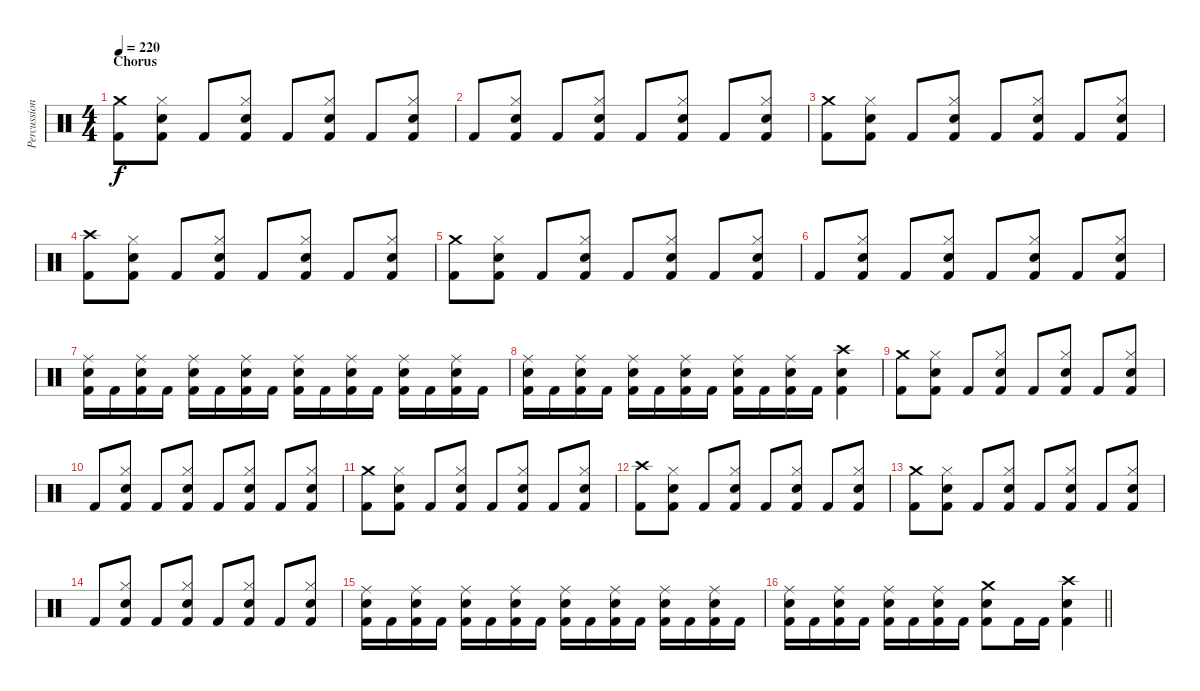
\track ("Percussion" "Percussion") {instrument percussion}
\staff {score}
\articulation defaults
\ts (4 4)
\section ("" "Chorus")
\tempo 220
\clef neutral
\ks c
("Crash medium (hit)" "Kick (hit) 2").8{dy f} ("Hi-Hat (closed)" "Electric Snare (hit)" "Kick (hit) 2").8 "Kick (hit) 2".8 ("Hi-Hat (closed)" "Electric Snare (hit)" "Kick (hit) 2").8 "Kick (hit) 2".8 ("Hi-Hat (closed)" "Electric Snare (hit)" "Kick (hit) 2").8 "Kick (hit) 2".8 ("Hi-Hat (closed)" "Electric Snare (hit)" "Kick (hit) 2").8 |
"Kick (hit) 2".8 ("Hi-Hat (closed)" "Electric Snare (hit)" "Kick (hit) 2").8 "Kick (hit) 2".8 ("Hi-Hat (closed)" "Electric Snare (hit)" "Kick (hit) 2").8 "Kick (hit) 2".8 ("Hi-Hat (closed)" "Electric Snare (hit)" "Kick (hit) 2").8 "Kick (hit) 2".8 ("Hi-Hat (closed)" "Electric Snare (hit)" "Kick (hit) 2").8 |
("Crash medium (hit)" "Kick (hit) 2").8 ("Hi-Hat (closed)" "Electric Snare (hit)" "Kick (hit) 2").8 "Kick (hit) 2".8 ("Hi-Hat (closed)" "Electric Snare (hit)" "Kick (hit) 2").8 "Kick (hit) 2".8 ("Hi-Hat (closed)" "Electric Snare (hit)" "Kick (hit) 2").8 "Kick (hit) 2".8 ("Hi-Hat (closed)" "Electric Snare (hit)" "Kick (hit) 2").8 |
("Crash high (hit)" "Kick (hit) 2").8 ("Hi-Hat (closed)" "Electric Snare (hit)" "Kick (hit) 2").8 "Kick (hit) 2".8 ("Hi-Hat (closed)" "Electric Snare (hit)" "Kick (hit) 2").8 "Kick (hit) 2".8 ("Hi-Hat (closed)" "Electric Snare (hit)" "Kick (hit) 2").8 "Kick (hit) 2".8 ("Hi-Hat (closed)" "Electric Snare (hit)" "Kick (hit) 2").8 |
("Crash medium (hit)" "Kick (hit) 2").8 ("Hi-Hat (closed)" "Electric Snare (hit)" "Kick (hit) 2").8 "Kick (hit) 2".8 ("Hi-Hat (closed)" "Electric Snare (hit)" "Kick (hit) 2").8 "Kick (hit) 2".8 ("Hi-Hat (closed)" "Electric Snare (hit)" "Kick (hit) 2").8 "Kick (hit) 2".8 ("Hi-Hat (closed)" "Electric Snare (hit)" "Kick (hit) 2").8 |
"Kick (hit) 2".8 ("Hi-Hat (closed)" "Electric Snare (hit)" "Kick (hit) 2").8 "Kick (hit) 2".8 ("Hi-Hat (closed)" "Electric Snare (hit)" "Kick (hit) 2").8 "Kick (hit) 2".8 ("Hi-Hat (closed)" "Electric Snare (hit)" "Kick (hit) 2").8 "Kick (hit) 2".8 ("Hi-Hat (closed)" "Electric Snare (hit)" "Kick (hit) 2").8 |
("Ride (middle)" "Electric Snare (hit)" "Kick (hit) 2").16 "Kick (hit) 2".16 ("Ride (middle)" "Electric Snare (hit)" "Kick (hit) 2").16 "Kick (hit) 2".16 ("Ride (middle)" "Electric Snare (hit)" "Kick (hit) 2").16 "Kick (hit) 2".16 ("Ride (middle)" "Electric Snare (hit)" "Kick (hit) 2").16 "Kick (hit) 2".16 ("Ride (middle)" "Electric Snare (hit)" "Kick (hit) 2").16 "Kick (hit) 2".16 ("Ride (middle)" "Electric Snare (hit)" "Kick (hit) 2").16 "Kick (hit) 2".16 ("Ride (middle)" "Electric Snare (hit)" "Kick (hit) 2").16 "Kick (hit) 2".16 ("Ride (middle)" "Electric Snare (hit)" "Kick (hit) 2").16 "Kick (hit) 2".16 |
("Ride (middle)" "Electric Snare (hit)" "Kick (hit) 2").16 "Kick (hit) 2".16 ("Ride (middle)" "Electric Snare (hit)" "Kick (hit) 2").16 "Kick (hit) 2".16 ("Ride (middle)" "Electric Snare (hit)" "Kick (hit) 2").16 "Kick (hit) 2".16 ("Ride (middle)" "Electric Snare (hit)" "Kick (hit) 2").16 "Kick (hit) 2".16 ("Ride (middle)" "Electric Snare (hit)" "Kick (hit) 2").16 "Kick (hit) 2".16 ("Ride (middle)" "Electric Snare (hit)" "Kick (hit) 2").16 "Kick (hit) 2".16 ("Crash high (hit)" "Electric Snare (hit)" "Kick (hit) 2").4 |
("Crash medium (hit)" "Kick (hit) 2").8 ("Hi-Hat (closed)" "Electric Snare (hit)" "Kick (hit) 2").8 "Kick (hit) 2".8 ("Hi-Hat (closed)" "Electric Snare (hit)" "Kick (hit) 2").8 "Kick (hit) 2".8 ("Hi-Hat (closed)" "Electric Snare (hit)" "Kick (hit) 2").8 "Kick (hit) 2".8 ("Hi-Hat (closed)" "Electric Snare (hit)" "Kick (hit) 2").8 |
"Kick (hit) 2".8 ("Hi-Hat (closed)" "Electric Snare (hit)" "Kick (hit) 2").8 "Kick (hit) 2".8 ("Hi-Hat (closed)" "Electric Snare (hit)" "Kick (hit) 2").8 "Kick (hit) 2".8 ("Hi-Hat (closed)" "Electric Snare (hit)" "Kick (hit) 2").8 "Kick (hit) 2".8 ("Hi-Hat (closed)" "Electric Snare (hit)" "Kick (hit) 2").8 |
("Crash medium (hit)" "Kick (hit) 2").8 ("Hi-Hat (closed)" "Electric Snare (hit)" "Kick (hit) 2").8 "Kick (hit) 2".8 ("Hi-Hat (closed)" "Electric Snare (hit)" "Kick (hit) 2").8 "Kick (hit) 2".8 ("Hi-Hat (closed)" "Electric Snare (hit)" "Kick (hit) 2").8 "Kick (hit) 2".8 ("Hi-Hat (closed)" "Electric Snare (hit)" "Kick (hit) 2").8 |
("Crash high (hit)" "Kick (hit) 2").8 ("Hi-Hat (closed)" "Electric Snare (hit)" "Kick (hit) 2").8 "Kick (hit) 2".8 ("Hi-Hat (closed)" "Electric Snare (hit)" "Kick (hit) 2").8 "Kick (hit) 2".8 ("Hi-Hat (closed)" "Electric Snare (hit)" "Kick (hit) 2").8 "Kick (hit) 2".8 ("Hi-Hat (closed)" "Electric Snare (hit)" "Kick (hit) 2").8 |
("Crash medium (hit)" "Kick (hit) 2").8 ("Hi-Hat (closed)" "Electric Snare (hit)" "Kick (hit) 2").8 "Kick (hit) 2".8 ("Hi-Hat (closed)" "Electric Snare (hit)" "Kick (hit) 2").8 "Kick (hit) 2".8 ("Hi-Hat (closed)" "Electric Snare (hit)" "Kick (hit) 2").8 "Kick (hit) 2".8 ("Hi-Hat (closed)" "Electric Snare (hit)" "Kick (hit) 2").8 |
"Kick (hit) 2".8 ("Hi-Hat (closed)" "Electric Snare (hit)" "Kick (hit) 2").8 "Kick (hit) 2".8 ("Hi-Hat (closed)" "Electric Snare (hit)" "Kick (hit) 2").8 "Kick (hit) 2".8 ("Hi-Hat (closed)" "Electric Snare (hit)" "Kick (hit) 2").8 "Kick (hit) 2".8 ("Hi-Hat (closed)" "Electric Snare (hit)" "Kick (hit) 2").8 |
("Ride (middle)" "Electric Snare (hit)" "Kick (hit) 2").16 "Kick (hit) 2".16 ("Ride (middle)" "Electric Snare (hit)" "Kick (hit) 2").16 "Kick (hit) 2".16 ("Ride (middle)" "Electric Snare (hit)" "Kick (hit) 2").16 "Kick (hit) 2".16 ("Ride (middle)" "Electric Snare (hit)" "Kick (hit) 2").16 "Kick (hit) 2".16 ("Ride (middle)" "Electric Snare (hit)" "Kick (hit) 2").16 "Kick (hit) 2".16 ("Ride (middle)" "Electric Snare (hit)" "Kick (hit) 2").16 "Kick (hit) 2".16 ("Ride (middle)" "Electric Snare (hit)" "Kick (hit) 2").16 "Kick (hit) 2".16 ("Ride (middle)" "Electric Snare (hit)" "Kick (hit) 2").16 "Kick (hit) 2".16 |
\barLineRight lightlight
("Ride (middle)" "Electric Snare (hit)" "Kick (hit) 2").16 "Kick (hit) 2".16 ("Ride (middle)" "Electric Snare (hit)" "Kick (hit) 2").16 "Kick (hit) 2".16 ("Ride (middle)" "Electric Snare (hit)" "Kick (hit) 2").16 "Kick (hit) 2".16 ("Ride (middle)" "Electric Snare (hit)" "Kick (hit) 2").16 "Kick (hit) 2".16 ("Crash medium (hit)" "Electric Snare (hit)" "Kick (hit) 2").8 "Kick (hit) 2".16 "Kick (hit) 2".16 ("Crash high (hit)" "Electric Snare (hit)" "Kick (hit) 2").4
